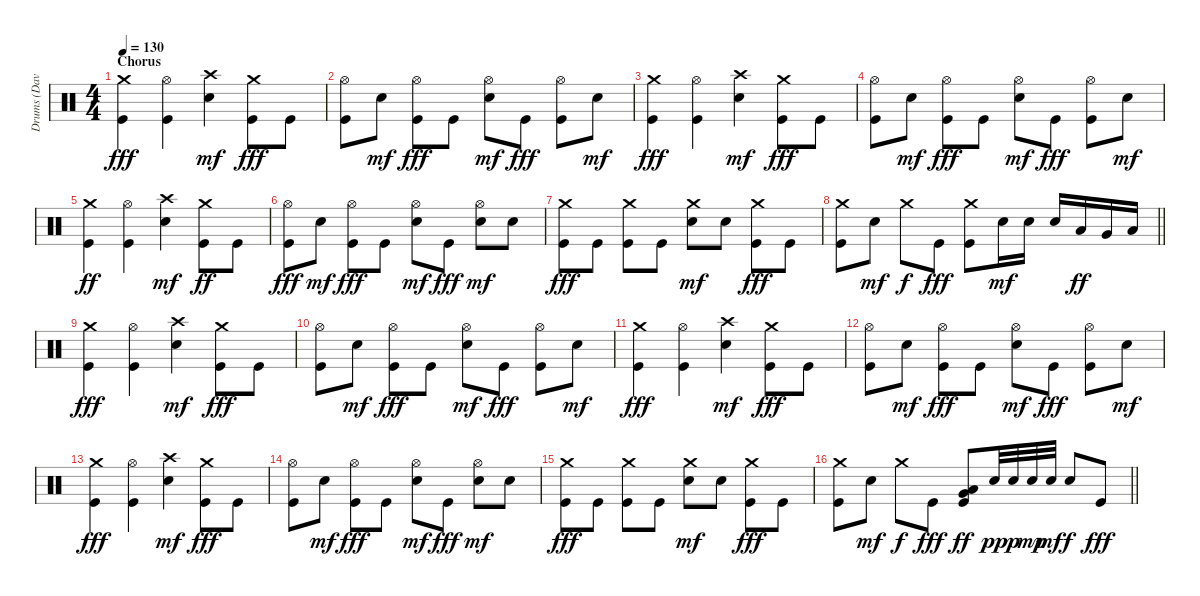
\track ("Drums (Dave Chavarri)" "Drums (Dav") {instrument percussion}
\staff {score}
\articulation defaults
\ts (4 4)
\section ("" "Chorus")
\tempo 130
\clef neutral
\ks c
("Crash medium (hit)" "Kick (hit)").4{dy fff} ("Hi-Hat (open)" "Kick (hit)").4 ("Crash high (hit)" "Electric Snare (hit)").4{dy mf} ("Crash medium (hit)" "Kick (hit)").8{dy fff} "Kick (hit)".8 |
("Hi-Hat (open)" "Kick (hit)").8 "Electric Snare (hit)".8{dy mf} ("Hi-Hat (open)" "Kick (hit)").8{dy fff} "Kick (hit)".8 ("Hi-Hat (open)" "Electric Snare (hit)").8{dy mf} "Kick (hit)".8{dy fff} ("Hi-Hat (open)" "Kick (hit)").8 "Electric Snare (hit)".8{dy mf} |
("Crash medium (hit)" "Kick (hit)").4{dy fff} ("Hi-Hat (open)" "Kick (hit)").4 ("Crash high (hit)" "Electric Snare (hit)").4{dy mf} ("Crash medium (hit)" "Kick (hit)").8{dy fff} "Kick (hit)".8 |
("Hi-Hat (open)" "Kick (hit)").8 "Electric Snare (hit)".8{dy mf} ("Hi-Hat (open)" "Kick (hit)").8{dy fff} "Kick (hit)".8 ("Hi-Hat (open)" "Electric Snare (hit)").8{dy mf} "Kick (hit)".8{dy fff} ("Hi-Hat (open)" "Kick (hit)").8 "Electric Snare (hit)".8{dy mf} |
("Crash medium (hit)" "Kick (hit)").4{dy ff} ("Hi-Hat (open)" "Kick (hit)").4 ("Crash high (hit)" "Electric Snare (hit)").4{dy mf} ("Crash medium (hit)" "Kick (hit)").8{dy ff} "Kick (hit)".8 |
("Hi-Hat (open)" "Kick (hit)").8{dy fff} "Electric Snare (hit)".8{dy mf} ("Hi-Hat (open)" "Kick (hit)").8{dy fff} "Kick (hit)".8 ("Hi-Hat (open)" "Electric Snare (hit)").8{dy mf} "Kick (hit)".8{dy fff} ("Hi-Hat (open)" "Electric Snare (hit)").8{dy mf} "Electric Snare (hit)".8 |
("Crash medium (hit)" "Kick (hit)").8{dy fff} "Kick (hit)".8 ("Crash medium (hit)" "Kick (hit)").8 "Kick (hit)".8 ("Crash medium (hit)" "Electric Snare (hit)").8{dy mf} "Electric Snare (hit)".8 ("Crash medium (hit)" "Kick (hit)").8{dy fff} "Kick (hit)".8 |
\barLineRight lightlight
("Crash medium (hit)" "Kick (hit)").8 "Electric Snare (hit)".8{dy mf} "Crash medium (hit)".8{dy f} "Kick (hit)".8{dy fff} ("Crash medium (hit)" "Kick (hit)").8 "Electric Snare (hit)".16{dy mf} "Electric Snare (hit)".16 "Electric Snare (hit)".16 "Low Tom (hit)".16{dy ff} "Very Low Tom (hit)".16 "Low Floor Tom (hit)".16 |
("Crash medium (hit)" "Kick (hit)").4{dy fff} ("Hi-Hat (open)" "Kick (hit)").4 ("Crash high (hit)" "Electric Snare (hit)").4{dy mf} ("Crash medium (hit)" "Kick (hit)").8{dy fff} "Kick (hit)".8 |
("Hi-Hat (open)" "Kick (hit)").8 "Electric Snare (hit)".8{dy mf} ("Hi-Hat (open)" "Kick (hit)").8{dy fff} "Kick (hit)".8 ("Hi-Hat (open)" "Electric Snare (hit)").8{dy mf} "Kick (hit)".8{dy fff} ("Hi-Hat (open)" "Kick (hit)").8 "Electric Snare (hit)".8{dy mf} |
("Crash medium (hit)" "Kick (hit)").4{dy fff} ("Hi-Hat (open)" "Kick (hit)").4 ("Crash high (hit)" "Electric Snare (hit)").4{dy mf} ("Crash medium (hit)" "Kick (hit)").8{dy fff} "Kick (hit)".8 |
("Hi-Hat (open)" "Kick (hit)").8 "Electric Snare (hit)".8{dy mf} ("Hi-Hat (open)" "Kick (hit)").8{dy fff} "Kick (hit)".8 ("Hi-Hat (open)" "Electric Snare (hit)").8{dy mf} "Kick (hit)".8{dy fff} ("Hi-Hat (open)" "Kick (hit)").8 "Electric Snare (hit)".8{dy mf} |
("Crash medium (hit)" "Kick (hit)").4{dy fff} ("Hi-Hat (open)" "Kick (hit)").4 ("Crash high (hit)" "Electric Snare (hit)").4{dy mf} ("Crash medium (hit)" "Kick (hit)").8{dy fff} "Kick (hit)".8 |
("Hi-Hat (open)" "Kick (hit)").8 "Electric Snare (hit)".8{dy mf} ("Hi-Hat (open)" "Kick (hit)").8{dy fff} "Kick (hit)".8 ("Hi-Hat (open)" "Electric Snare (hit)").8{dy mf} "Kick (hit)".8{dy fff} ("Hi-Hat (open)" "Electric Snare (hit)").8{dy mf} "Electric Snare (hit)".8 |
("Crash medium (hit)" "Kick (hit)").8{dy fff} "Kick (hit)".8 ("Crash medium (hit)" "Kick (hit)").8 "Kick (hit)".8 ("Crash medium (hit)" "Electric Snare (hit)").8{dy mf} "Electric Snare (hit)".8 ("Crash medium (hit)" "Kick (hit)").8{dy fff} "Kick (hit)".8 |
\barLineRight lightlight
("Crash medium (hit)" "Kick (hit)").8 "Electric Snare (hit)".8{dy mf} "Crash medium (hit)".8{dy f} "Kick (hit)".8{dy fff} ("Low Tom (hit)" "Very Low Tom (hit)" "Kick (hit)").8{dy ff} "Electric Snare (hit)".32{dy pp} "Electric Snare (hit)".32{dy p} "Electric Snare (hit)".32{dy mp} "Electric Snare (hit)".32{dy mf} "Electric Snare (hit)".8{dy f} "Kick (hit)".8{dy fff}
